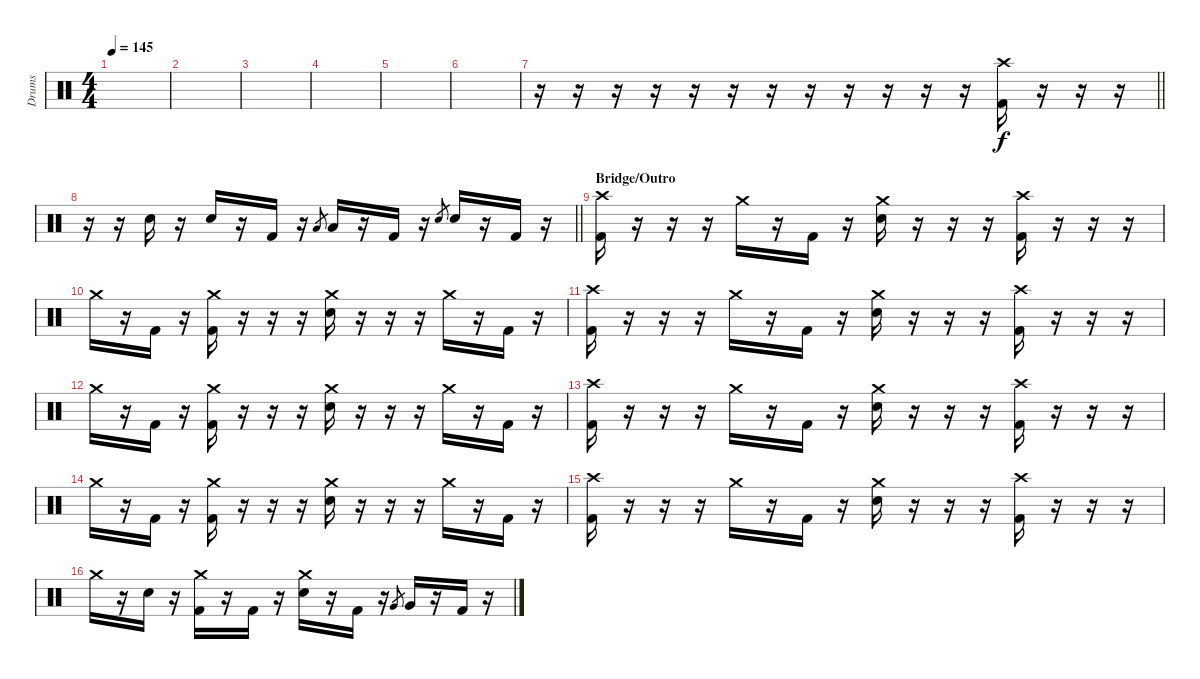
\track ("Drums" "Drums") {instrument percussion}
\staff {score}
\articulation defaults
\ts (4 4)
\tempo 145
\clef neutral
\ks c
|
|
|
|
|
|
\barLineRight lightlight
r.16 r.16 r.16 r.16 r.16 r.16 r.16 r.16 r.16 r.16 r.16 r.16 ("Crash high (hit)" "Kick (hit) 2").16 r.16 r.16 r.16 |
\barLineRight lightlight
r.16 r.16 "Electric Snare (hit)".16 r.16 "Electric Snare (hit)".16 r.16 "Kick (hit) 2".16 r.16 "Low Tom (hit)".8{gr} "Low Tom (hit)".16 r.16 "Kick (hit) 2".16 r.16 "Electric Snare (hit)".8{gr} "Electric Snare (hit)".16 r.16 "Kick (hit) 2".16 r.16 |
\section ("" "Bridge/Outro")
("Crash high (hit)" "Kick (hit) 2").16 r.16 r.16 r.16 "Crash medium (hit)".16 r.16 "Kick (hit) 2".16 r.16 ("Crash medium (hit)" "Electric Snare (hit)").16 r.16 r.16 r.16 ("Crash high (hit)" "Kick (hit) 2").16 r.16 r.16 r.16 |
"Crash medium (hit)".16 r.16 "Kick (hit) 2".16 r.16 ("Crash medium (hit)" "Kick (hit) 2").16 r.16 r.16 r.16 ("Crash medium (hit)" "Electric Snare (hit)").16 r.16 r.16 r.16 "Crash medium (hit)".16 r.16 "Kick (hit) 2".16 r.16 |
("Crash high (hit)" "Kick (hit) 2").16 r.16 r.16 r.16 "Crash medium (hit)".16 r.16 "Kick (hit) 2".16 r.16 ("Crash medium (hit)" "Electric Snare (hit)").16 r.16 r.16 r.16 ("Crash high (hit)" "Kick (hit) 2").16 r.16 r.16 r.16 |
"Crash medium (hit)".16 r.16 "Kick (hit) 2".16 r.16 ("Crash medium (hit)" "Kick (hit) 2").16 r.16 r.16 r.16 ("Crash medium (hit)" "Electric Snare (hit)").16 r.16 r.16 r.16 "Crash medium (hit)".16 r.16 "Kick (hit) 2".16 r.16 |
("Crash high (hit)" "Kick (hit) 2").16 r.16 r.16 r.16 "Crash medium (hit)".16 r.16 "Kick (hit) 2".16 r.16 ("Crash medium (hit)" "Electric Snare (hit)").16 r.16 r.16 r.16 ("Crash high (hit)" "Kick (hit) 2").16 r.16 r.16 r.16 |
"Crash medium (hit)".16 r.16 "Kick (hit) 2".16 r.16 ("Crash medium (hit)" "Kick (hit) 2").16 r.16 r.16 r.16 ("Crash medium (hit)" "Electric Snare (hit)").16 r.16 r.16 r.16 "Crash medium (hit)".16 r.16 "Kick (hit) 2".16 r.16 |
("Crash high (hit)" "Kick (hit) 2").16 r.16 r.16 r.16 "Crash medium (hit)".16 r.16 "Kick (hit) 2".16 r.16 ("Crash medium (hit)" "Electric Snare (hit)").16 r.16 r.16 r.16 ("Crash high (hit)" "Kick (hit) 2").16 r.16 r.16 r.16 |
"Crash medium (hit)".16 r.16 "Electric Snare (hit)".16 r.16 ("Crash medium (hit)" "Kick (hit) 2").16 r.16 "Kick (hit) 2".16 r.16 ("Crash medium (hit)" "Electric Snare (hit)").16 r.16 "Kick (hit) 2".16 r.16 "Very Low Tom (hit)".8{gr} "Very Low Tom (hit)".16 r.16 "Kick (hit) 2".16 r.16
